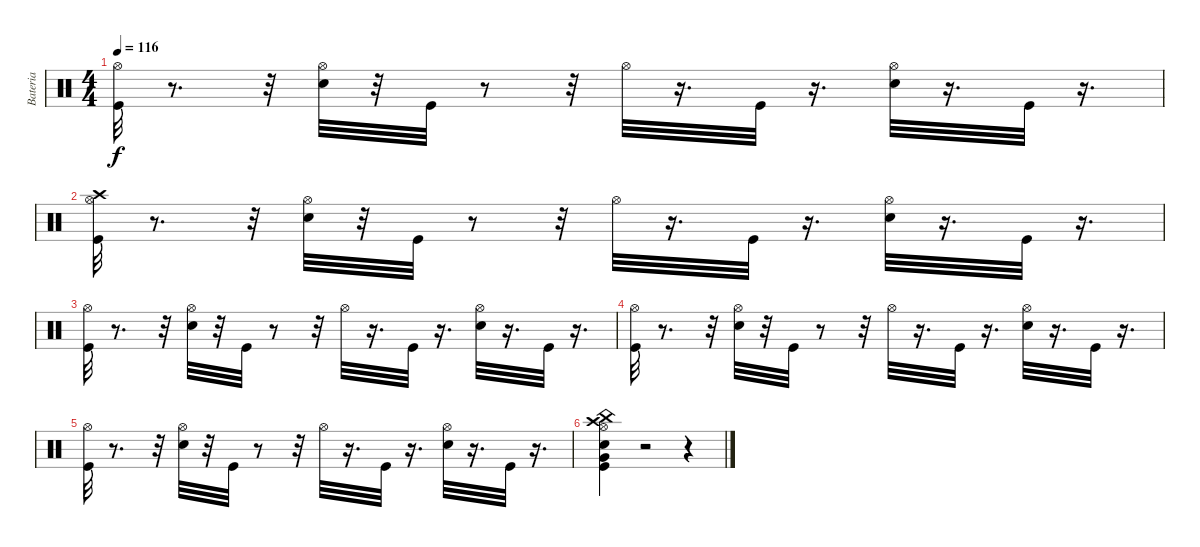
\track ("Bateria" "Bateria") {instrument percussion}
\staff {score}
\articulation defaults
\ts (4 4)
\tempo 116
\clef neutral
\ks c
("Hi-Hat (open)" "Kick (hit)").32{dy f} r.8{d} r.32 ("Hi-Hat (open)" "Electric Snare (hit)").32 r.32 "Kick (hit)".32 r.8 r.32 "Hi-Hat (open)".32 r.16{d} "Kick (hit)".32 r.16{d} ("Hi-Hat (open)" "Electric Snare (hit)").32 r.16{d} "Kick (hit)".32 r.16{d} |
("Hi-Hat (open)" "Kick (hit)" "Crash high (hit)").32 r.8{d} r.32 ("Hi-Hat (open)" "Electric Snare (hit)").32 r.32 "Kick (hit)".32 r.8 r.32 "Hi-Hat (open)".32 r.16{d} "Kick (hit)".32 r.16{d} ("Hi-Hat (open)" "Electric Snare (hit)").32 r.16{d} "Kick (hit)".32 r.16{d} |
("Hi-Hat (open)" "Kick (hit)").32 r.8{d} r.32 ("Hi-Hat (open)" "Electric Snare (hit)").32 r.32 "Kick (hit)".32 r.8 r.32 "Hi-Hat (open)".32 r.16{d} "Kick (hit)".32 r.16{d} ("Hi-Hat (open)" "Electric Snare (hit)").32 r.16{d} "Kick (hit)".32 r.16{d} |
("Hi-Hat (open)" "Kick (hit)").32 r.8{d} r.32 ("Hi-Hat (open)" "Electric Snare (hit)").32 r.32 "Kick (hit)".32 r.8 r.32 "Hi-Hat (open)".32 r.16{d} "Kick (hit)".32 r.16{d} ("Hi-Hat (open)" "Electric Snare (hit)").32 r.16{d} "Kick (hit)".32 r.16{d} |
("Hi-Hat (open)" "Kick (hit)").32 r.8{d} r.32 ("Hi-Hat (open)" "Electric Snare (hit)").32 r.32 "Kick (hit)".32 r.8 r.32 "Hi-Hat (open)".32 r.16{d} "Kick (hit)".32 r.16{d} ("Hi-Hat (open)" "Electric Snare (hit)").32 r.16{d} "Kick (hit)".32 r.16{d} |
("China (hit)" "Crash high (hit)" "Hi-Hat (open)" "Very Low Tom (hit)" "Snare (hit) 2" "Kick (hit)").4 r.2 r.4
